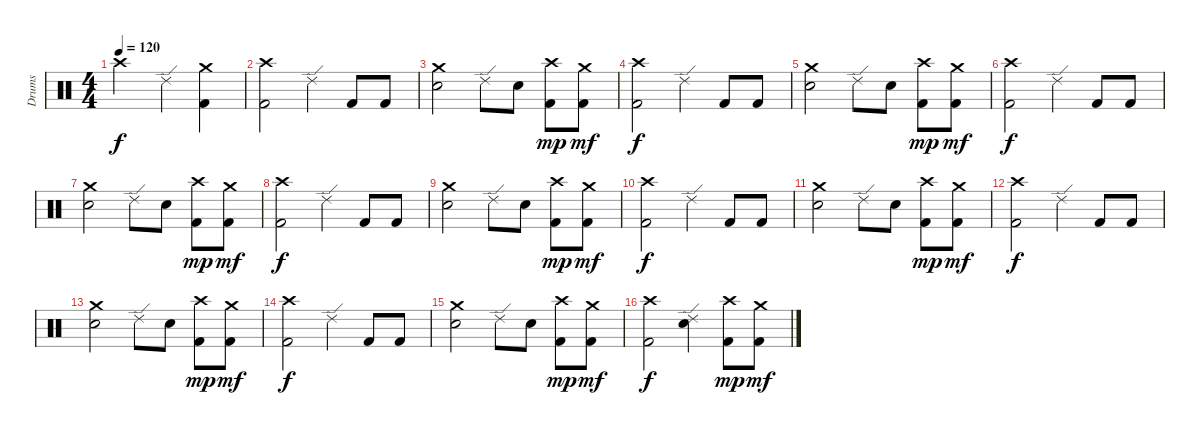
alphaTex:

\track ("Drums" "Drums") {instrument percussion}
\staff {score}
\articulation defaults
\ts (4 4)
\tempo 120
\clef neutral
\ks c "Crash high (hit)".2{dy f} "Ride (edge) 2".4
("Crash medium (hit)" "Kick (hit) 2").4 |
("Crash high (hit)" "Kick (hit) 2").2 "Ride (edge) 2".4 "Kick (hit) 2".8 "Kick (hit) 2".8 |
("Crash medium (hit)" "Electric Snare (hit)").2 "Ride (edge) 2".8 "Electric Snare (hit)".8 ("Crash high (hit)" "Kick (hit) 2").8{dy mp} ("Crash medium (hit)" "Kick (hit) 2").8{dy mf} |
("Crash high (hit)" "Kick (hit) 2").2{dy f} "Ride (edge) 2".4 "Kick (hit) 2".8 "Kick (hit) 2".8 |
("Crash medium (hit)" "Electric Snare (hit)").2 "Ride (edge) 2".8 "Electric Snare (hit)".8 ("Crash high (hit)" "Kick (hit) 2").8{dy mp} ("Crash medium (hit)" "Kick (hit) 2").8{dy mf} |
("Crash high (hit)" "Kick (hit) 2").2{dy f} "Ride (edge) 2".4 "Kick (hit) 2".8 "Kick (hit) 2".8 |
("Crash medium (hit)" "Electric Snare (hit)").2 "Ride (edge) 2".8 "Electric Snare (hit)".8 ("Crash high (hit)" "Kick (hit) 2").8{dy mp} ("Crash medium (hit)" "Kick (hit) 2").8{dy mf} |
("Crash high (hit)" "Kick (hit) 2").2{dy f} "Ride (edge) 2".4 "Kick (hit) 2".8 "Kick (hit) 2".8 |
("Crash medium (hit)" "Electric Snare (hit)").2 "Ride (edge) 2".8 "Electric Snare (hit)".8 ("Crash high (hit)" "Kick (hit) 2").8{dy mp} ("Crash medium (hit)" "Kick (hit) 2").8{dy mf} |
("Crash high (hit)" "Kick (hit) 2").2{dy f} "Ride (edge) 2".4 "Kick (hit) 2".8 "Kick (hit) 2".8 |
("Crash medium (hit)" "Electric Snare (hit)").2 "Ride (edge) 2".8 "Electric Snare (hit)".8 ("Crash high (hit)" "Kick (hit) 2").8{dy mp} ("Crash medium (hit)" "Kick (hit) 2").8{dy mf} |
("Crash high (hit)" "Kick (hit) 2").2{dy f} "Ride (edge) 2".4 "Kick (hit) 2".8 "Kick (hit) 2".8 |
("Crash medium (hit)" "Electric Snare (hit)").2 "Ride (edge) 2".8 "Electric Snare (hit)".8 ("Crash high (hit)" "Kick (hit) 2").8{dy mp} ("Crash medium (hit)" "Kick (hit) 2").8{dy mf} |
("Crash high (hit)" "Kick (hit) 2").2{dy f} "Ride (edge) 2".4 "Kick (hit) 2".8 "Kick (hit) 2".8 |
("Crash medium (hit)" "Electric Snare (hit)").2 "Ride (edge) 2".8 "Electric Snare (hit)".8 ("Crash high (hit)" "Kick (hit) 2").8{dy mp} ("Crash medium (hit)" "Kick (hit) 2").8{dy mf} |
("Crash high (hit)" "Kick (hit) 2").2{dy f} ("Ride (edge) 2" "Electric Snare (hit)").4 ("Crash high (hit)" "Kick (hit) 2").8{dy mp} ("Crash medium (hit)" "Kick (hit) 2").8{dy mf}
